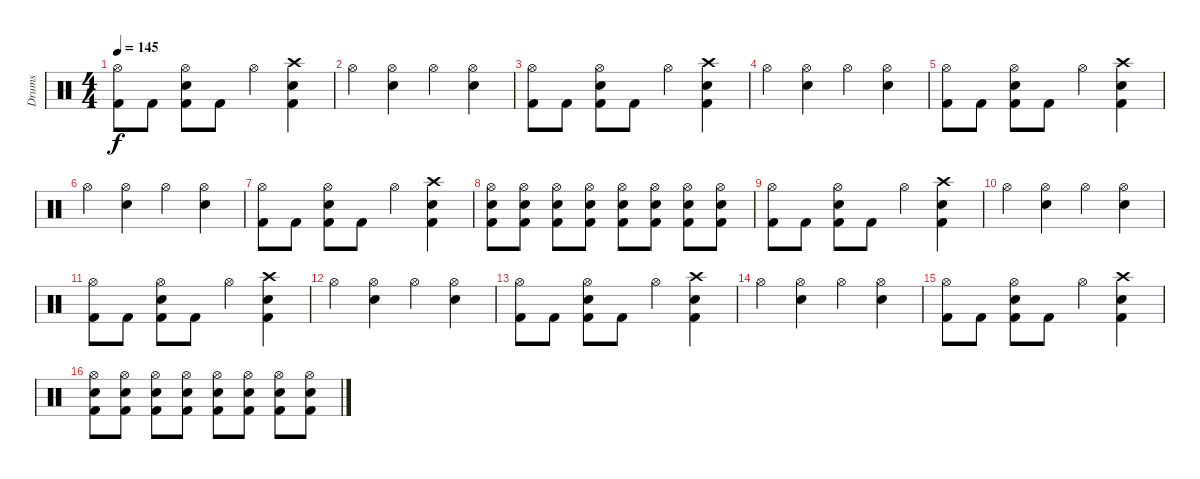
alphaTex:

\track ("Drums" "Drums") {instrument percussion}
\staff {score}
\articulation defaults
\ts (4 4)
\tempo 145
\clef neutral
\ks c
("Hi-Hat (open)" "Kick (hit) 2").8{dy f} "Kick (hit) 2".8 ("Hi-Hat (open)" "Snare (hit) 2" "Kick (hit) 2").8 "Kick (hit) 2".8 "Hi-Hat (open)".4 ("Crash high (hit)" "Snare (hit) 2" "Kick (hit) 2").4 |
"Hi-Hat (open)".4 ("Hi-Hat (open)" "Snare (hit) 2").4 "Hi-Hat (open)".4 ("Hi-Hat (open)" "Snare (hit) 2").4 |
("Hi-Hat (open)" "Kick (hit) 2").8 "Kick (hit) 2".8 ("Hi-Hat (open)" "Snare (hit) 2" "Kick (hit) 2").8 "Kick (hit) 2".8 "Hi-Hat (open)".4 ("Crash high (hit)" "Snare (hit) 2" "Kick (hit) 2").4 |
"Hi-Hat (open)".4 ("Hi-Hat (open)" "Snare (hit) 2").4 "Hi-Hat (open)".4 ("Hi-Hat (open)" "Snare (hit) 2").4 |
("Hi-Hat (open)" "Kick (hit) 2").8 "Kick (hit) 2".8 ("Hi-Hat (open)" "Snare (hit) 2" "Kick (hit) 2").8 "Kick (hit) 2".8 "Hi-Hat (open)".4 ("Crash high (hit)" "Snare (hit) 2" "Kick (hit) 2").4 |
"Hi-Hat (open)".4 ("Hi-Hat (open)" "Snare (hit) 2").4 "Hi-Hat (open)".4 ("Hi-Hat (open)" "Snare (hit) 2").4 |
("Hi-Hat (open)" "Kick (hit) 2").8 "Kick (hit) 2".8 ("Hi-Hat (open)" "Snare (hit) 2" "Kick (hit) 2").8 "Kick (hit) 2".8 "Hi-Hat (open)".4 ("Crash high (hit)" "Snare (hit) 2" "Kick (hit) 2").4 |
("Hi-Hat (open)" "Snare (hit) 2" "Kick (hit) 2").8 ("Hi-Hat (open)" "Snare (hit) 2" "Kick (hit) 2").8 ("Hi-Hat (open)" "Snare (hit) 2" "Kick (hit) 2").8 ("Hi-Hat (open)" "Snare (hit) 2" "Kick (hit) 2").8 ("Hi-Hat (open)" "Snare (hit) 2" "Kick (hit) 2").8 ("Hi-Hat (open)" "Snare (hit) 2" "Kick (hit) 2").8 ("Hi-Hat (open)" "Snare (hit) 2" "Kick (hit) 2").8 ("Hi-Hat (open)" "Snare (hit) 2" "Kick (hit) 2").8 |
("Hi-Hat (open)" "Kick (hit) 2").8 "Kick (hit) 2".8 ("Hi-Hat (open)" "Snare (hit) 2" "Kick (hit) 2").8 "Kick (hit) 2".8 "Hi-Hat (open)".4 ("Crash high (hit)" "Snare (hit) 2" "Kick (hit) 2").4 |
"Hi-Hat (open)".4 ("Hi-Hat (open)" "Snare (hit) 2").4 "Hi-Hat (open)".4 ("Hi-Hat (open)" "Snare (hit) 2").4 |
("Hi-Hat (open)" "Kick (hit) 2").8 "Kick (hit) 2".8 ("Hi-Hat (open)" "Snare (hit) 2" "Kick (hit) 2").8 "Kick (hit) 2".8 "Hi-Hat (open)".4 ("Crash high (hit)" "Snare (hit) 2" "Kick (hit) 2").4 |
"Hi-Hat (open)".4 ("Hi-Hat (open)" "Snare (hit) 2").4 "Hi-Hat (open)".4 ("Hi-Hat (open)" "Snare (hit) 2").4 |
("Hi-Hat (open)" "Kick (hit) 2").8 "Kick (hit) 2".8 ("Hi-Hat (open)" "Snare (hit) 2" "Kick (hit) 2").8 "Kick (hit) 2".8 "Hi-Hat (open)".4 ("Crash high (hit)" "Snare (hit) 2" "Kick (hit) 2").4 |
"Hi-Hat (open)".4 ("Hi-Hat (open)" "Snare (hit) 2").4 "Hi-Hat (open)".4 ("Hi-Hat (open)" "Snare (hit) 2").4 |
("Hi-Hat (open)" "Kick (hit) 2").8 "Kick (hit) 2".8 ("Hi-Hat (open)" "Snare (hit) 2" "Kick (hit) 2").8 "Kick (hit) 2".8 "Hi-Hat (open)".4 ("Crash high (hit)" "Snare (hit) 2" "Kick (hit) 2").4 |
("Hi-Hat (open)" "Snare (hit) 2" "Kick (hit) 2").8 ("Hi-Hat (open)" "Snare (hit) 2" "Kick (hit) 2").8 ("Hi-Hat (open)" "Snare (hit) 2" "Kick (hit) 2").8 ("Hi-Hat (open)" "Snare (hit) 2" "Kick (hit) 2").8 ("Hi-Hat (open)" "Snare (hit) 2" "Kick (hit) 2").8 ("Hi-Hat (open)" "Snare (hit) 2" "Kick (hit) 2").8 ("Hi-Hat (open)" "Snare (hit) 2" "Kick (hit) 2").8 ("Hi-Hat (open)" "Snare (hit) 2" "Kick (hit) 2").8
